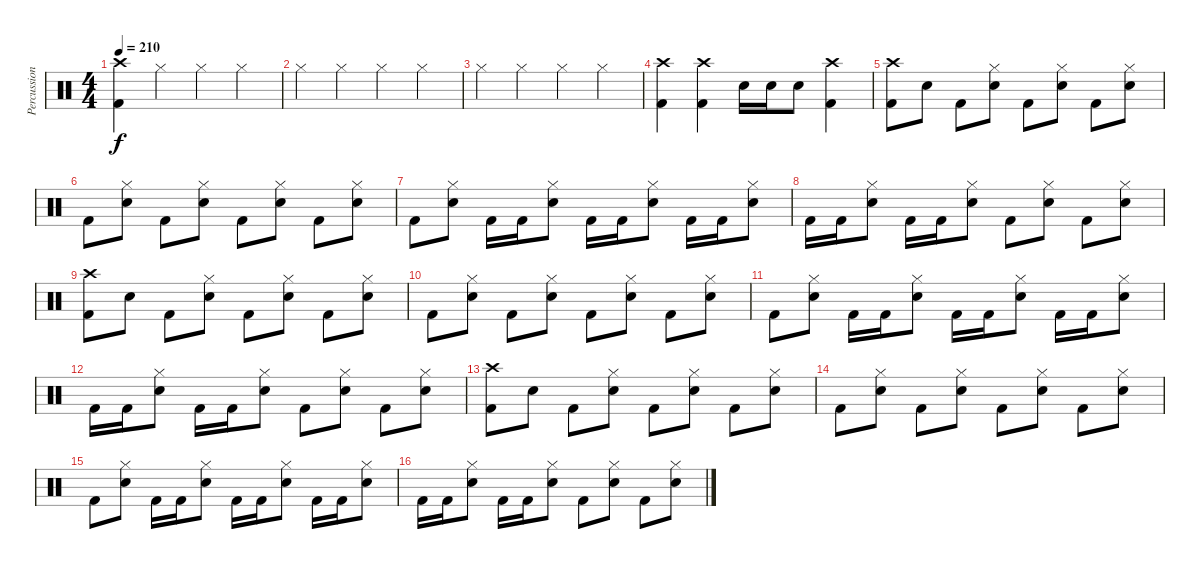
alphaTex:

\track ("Percussion" "Percussion") {instrument percussion}
\staff {score}
\articulation defaults
\ts (4 4)
\tempo 210
\clef neutral
\ks c
("Crash high (hit)" "Kick (hit) 2").4{dy f} "Hi-Hat (closed)".4 "Hi-Hat (closed)".4 "Hi-Hat (closed)".4 |
"Hi-Hat (closed)".4 "Hi-Hat (closed)".4 "Hi-Hat (closed)".4 "Hi-Hat (closed)".4 |
"Hi-Hat (closed)".4 "Hi-Hat (closed)".4 "Hi-Hat (closed)".4 "Hi-Hat (closed)".4 |
("Crash high (hit)" "Kick (hit) 2").4 ("Crash high (hit)" "Kick (hit) 2").4 "Electric Snare (hit)".16 "Electric Snare (hit)".16 "Electric Snare (hit)".8 ("Crash high (hit)" "Kick (hit) 2").4 |
("Crash high (hit)" "Kick (hit) 2").8 "Electric Snare (hit)".8 "Kick (hit) 2".8 ("Hi-Hat (closed)" "Electric Snare (hit)").8 "Kick (hit) 2".8 ("Hi-Hat (closed)" "Electric Snare (hit)").8 "Kick (hit) 2".8 ("Hi-Hat (closed)" "Electric Snare (hit)").8 |
"Kick (hit) 2".8 ("Hi-Hat (closed)" "Electric Snare (hit)").8 "Kick (hit) 2".8 ("Hi-Hat (closed)" "Electric Snare (hit)").8 "Kick (hit) 2".8 ("Hi-Hat (closed)" "Electric Snare (hit)").8 "Kick (hit) 2".8 ("Hi-Hat (closed)" "Electric Snare (hit)").8 |
"Kick (hit) 2".8 ("Hi-Hat (closed)" "Electric Snare (hit)").8 "Kick (hit) 2".16 "Kick (hit) 2".16 ("Hi-Hat (closed)" "Electric Snare (hit)").8 "Kick (hit) 2".16 "Kick (hit) 2".16 ("Hi-Hat (closed)" "Electric Snare (hit)").8 "Kick (hit) 2".16 "Kick (hit) 2".16 ("Hi-Hat (closed)" "Electric Snare (hit)").8 |
"Kick (hit) 2".16 "Kick (hit) 2".16 ("Hi-Hat (closed)" "Electric Snare (hit)").8 "Kick (hit) 2".16 "Kick (hit) 2".16 ("Hi-Hat (closed)" "Electric Snare (hit)").8 "Kick (hit) 2".8 ("Hi-Hat (closed)" "Electric Snare (hit)").8 "Kick (hit) 2".8 ("Hi-Hat (closed)" "Electric Snare (hit)").8 |
("Crash high (hit)" "Kick (hit) 2").8 "Electric Snare (hit)".8 "Kick (hit) 2".8 ("Hi-Hat (closed)" "Electric Snare (hit)").8 "Kick (hit) 2".8 ("Hi-Hat (closed)" "Electric Snare (hit)").8 "Kick (hit) 2".8 ("Hi-Hat (closed)" "Electric Snare (hit)").8 |
"Kick (hit) 2".8 ("Hi-Hat (closed)" "Electric Snare (hit)").8 "Kick (hit) 2".8 ("Hi-Hat (closed)" "Electric Snare (hit)").8 "Kick (hit) 2".8 ("Hi-Hat (closed)" "Electric Snare (hit)").8 "Kick (hit) 2".8 ("Hi-Hat (closed)" "Electric Snare (hit)").8 |
"Kick (hit) 2".8 ("Hi-Hat (closed)" "Electric Snare (hit)").8 "Kick (hit) 2".16 "Kick (hit) 2".16 ("Hi-Hat (closed)" "Electric Snare (hit)").8 "Kick (hit) 2".16 "Kick (hit) 2".16 ("Hi-Hat (closed)" "Electric Snare (hit)").8 "Kick (hit) 2".16 "Kick (hit) 2".16 ("Hi-Hat (closed)" "Electric Snare (hit)").8 |
"Kick (hit) 2".16 "Kick (hit) 2".16 ("Hi-Hat (closed)" "Electric Snare (hit)").8 "Kick (hit) 2".16 "Kick (hit) 2".16 ("Hi-Hat (closed)" "Electric Snare (hit)").8 "Kick (hit) 2".8 ("Hi-Hat (closed)" "Electric Snare (hit)").8 "Kick (hit) 2".8 ("Hi-Hat (closed)" "Electric Snare (hit)").8 |
("Crash high (hit)" "Kick (hit) 2").8 "Electric Snare (hit)".8 "Kick (hit) 2".8 ("Hi-Hat (closed)" "Electric Snare (hit)").8 "Kick (hit) 2".8 ("Hi-Hat (closed)" "Electric Snare (hit)").8 "Kick (hit) 2".8 ("Hi-Hat (closed)" "Electric Snare (hit)").8 |
"Kick (hit) 2".8 ("Hi-Hat (closed)" "Electric Snare (hit)").8 "Kick (hit) 2".8 ("Hi-Hat (closed)" "Electric Snare (hit)").8 "Kick (hit) 2".8 ("Hi-Hat (closed)" "Electric Snare (hit)").8 "Kick (hit) 2".8 ("Hi-Hat (closed)" "Electric Snare (hit)").8 |
"Kick (hit) 2".8 ("Hi-Hat (closed)" "Electric Snare (hit)").8 "Kick (hit) 2".16 "Kick (hit) 2".16 ("Hi-Hat (closed)" "Electric Snare (hit)").8 "Kick (hit) 2".16 "Kick (hit) 2".16 ("Hi-Hat (closed)" "Electric Snare (hit)").8 "Kick (hit) 2".16 "Kick (hit) 2".16 ("Hi-Hat (closed)" "Electric Snare (hit)").8 |
"Kick (hit) 2".16 "Kick (hit) 2".16 ("Hi-Hat (closed)" "Electric Snare (hit)").8 "Kick (hit) 2".16 "Kick (hit) 2".16 ("Hi-Hat (closed)" "Electric Snare (hit)").8 "Kick (hit) 2".8 ("Hi-Hat (closed)" "Electric Snare (hit)").8 "Kick (hit) 2".8 ("Hi-Hat (closed)" "Electric Snare (hit)").8
